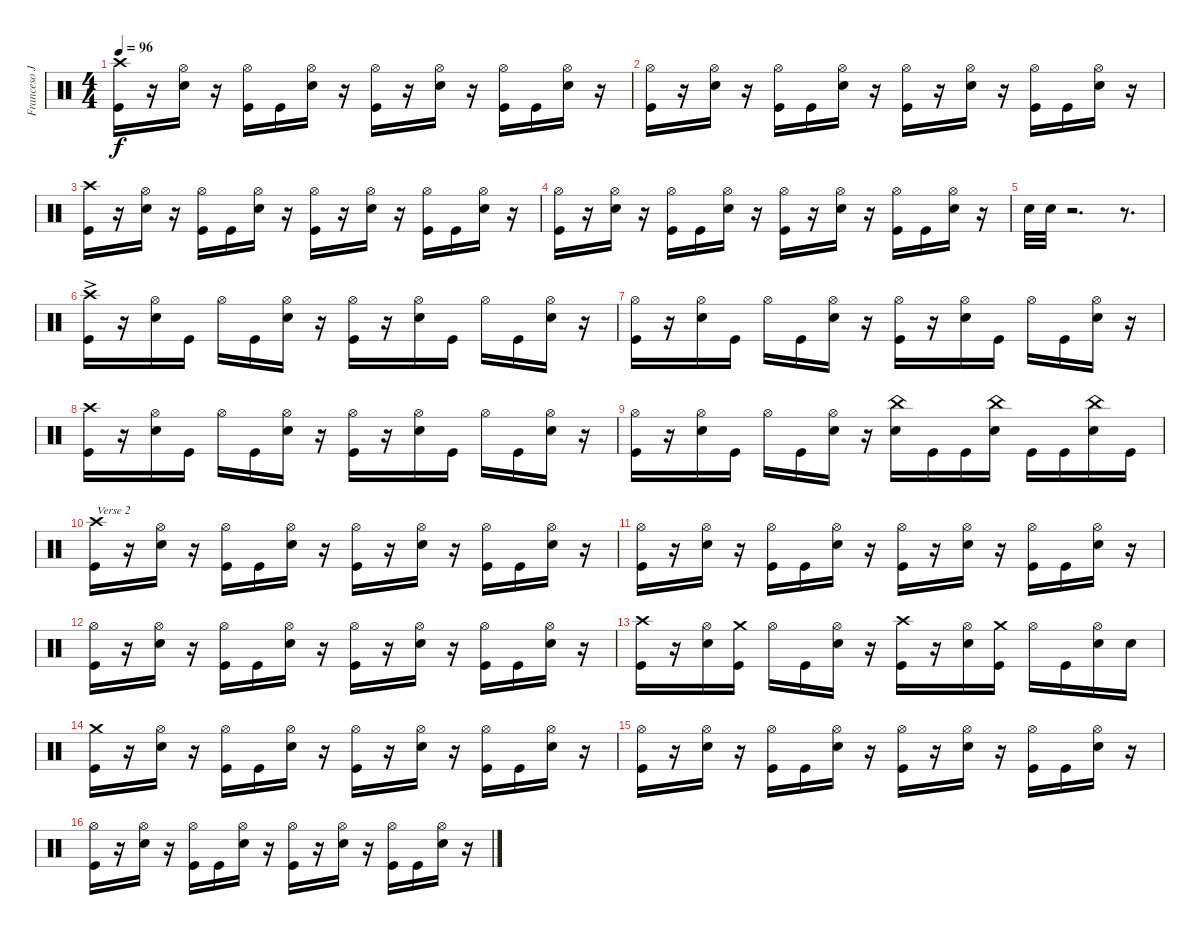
\track ("Franceso Jovino" "Franceso J") {instrument percussion}
\staff {score}
\articulation defaults
\ts (4 4)
\tempo 96
\clef neutral
\ks c
("Kick (hit)" "Crash high (hit)").16{dy f} r.16 ("Snare (hit) 2" "Hi-Hat (open)").16 r.16 ("Hi-Hat (open)" "Kick (hit)").16 "Kick (hit)".16 ("Snare (hit) 2" "Hi-Hat (open)").16 r.16 ("Kick (hit)" "Hi-Hat (open)").16 r.16 ("Snare (hit) 2" "Hi-Hat (open)").16 r.16 ("Hi-Hat (open)" "Kick (hit)").16 "Kick (hit)".16 ("Snare (hit) 2" "Hi-Hat (open)").16 r.16 |
("Kick (hit)" "Hi-Hat (open)").16 r.16 ("Snare (hit) 2" "Hi-Hat (open)").16 r.16 ("Hi-Hat (open)" "Kick (hit)").16 "Kick (hit)".16 ("Snare (hit) 2" "Hi-Hat (open)").16 r.16 ("Kick (hit)" "Hi-Hat (open)").16 r.16 ("Snare (hit) 2" "Hi-Hat (open)").16 r.16 ("Hi-Hat (open)" "Kick (hit)").16 "Kick (hit)".16 ("Snare (hit) 2" "Hi-Hat (open)").16 r.16 |
("Kick (hit)" "Crash high (hit)").16 r.16 ("Snare (hit) 2" "Hi-Hat (open)").16 r.16 ("Hi-Hat (open)" "Kick (hit)").16 "Kick (hit)".16 ("Snare (hit) 2" "Hi-Hat (open)").16 r.16 ("Kick (hit)" "Hi-Hat (open)").16 r.16 ("Snare (hit) 2" "Hi-Hat (open)").16 r.16 ("Hi-Hat (open)" "Kick (hit)").16 "Kick (hit)".16 ("Snare (hit) 2" "Hi-Hat (open)").16 r.16 |
("Kick (hit)" "Hi-Hat (open)").16 r.16 ("Snare (hit) 2" "Hi-Hat (open)").16 r.16 ("Hi-Hat (open)" "Kick (hit)").16 "Kick (hit)".16 ("Snare (hit) 2" "Hi-Hat (open)").16 r.16 ("Kick (hit)" "Hi-Hat (open)").16 r.16 ("Snare (hit) 2" "Hi-Hat (open)").16 r.16 ("Hi-Hat (open)" "Kick (hit)").16 "Kick (hit)".16 ("Snare (hit) 2" "Hi-Hat (open)").16 r.16 |
"Snare (hit) 2".32 "Snare (hit) 2".32 r.2{d} r.8{d} |
("Kick (hit)"{ac} "Crash high (hit)"{ac}).16 r.16 ("Snare (hit) 2" "Hi-Hat (open)").16 "Kick (hit)".16 "Hi-Hat (open)".16 "Kick (hit)".16 ("Snare (hit) 2" "Hi-Hat (open)").16 r.16 ("Kick (hit)" "Hi-Hat (open)").16 r.16 ("Snare (hit) 2" "Hi-Hat (open)").16 "Kick (hit)".16 "Hi-Hat (open)".16 "Kick (hit)".16 ("Snare (hit) 2" "Hi-Hat (open)").16 r.16 |
("Kick (hit)" "Hi-Hat (open)").16 r.16 ("Snare (hit) 2" "Hi-Hat (open)").16 "Kick (hit)".16 "Hi-Hat (open)".16 "Kick (hit)".16 ("Snare (hit) 2" "Hi-Hat (open)").16 r.16 ("Kick (hit)" "Hi-Hat (open)").16 r.16 ("Snare (hit) 2" "Hi-Hat (open)").16 "Kick (hit)".16 "Hi-Hat (open)".16 "Kick (hit)".16 ("Snare (hit) 2" "Hi-Hat (open)").16 r.16 |
("Kick (hit)" "Crash high (hit)").16 r.16 ("Snare (hit) 2" "Hi-Hat (open)").16 "Kick (hit)".16 "Hi-Hat (open)".16 "Kick (hit)".16 ("Snare (hit) 2" "Hi-Hat (open)").16 r.16 ("Kick (hit)" "Hi-Hat (open)").16 r.16 ("Snare (hit) 2" "Hi-Hat (open)").16 "Kick (hit)".16 "Hi-Hat (open)".16 "Kick (hit)".16 ("Snare (hit) 2" "Hi-Hat (open)").16 r.16 |
("Kick (hit)" "Hi-Hat (open)").16 r.16 ("Snare (hit) 2" "Hi-Hat (open)").16 "Kick (hit)".16 "Hi-Hat (open)".16 "Kick (hit)".16 ("Snare (hit) 2" "Hi-Hat (open)").16 r.16 ("Snare (hit) 2" "China (hit)").16 "Kick (hit)".16 "Kick (hit)".16 ("Snare (hit) 2" "China (hit)").16 "Kick (hit)".16 "Kick (hit)".16 ("Snare (hit) 2" "China (hit)").16 "Kick (hit)".16 |
("Kick (hit)" "Crash high (hit)").16{txt "Verse 2"} r.16 ("Snare (hit) 2" "Hi-Hat (open)").16 r.16 ("Hi-Hat (open)" "Kick (hit)").16 "Kick (hit)".16 ("Snare (hit) 2" "Hi-Hat (open)").16 r.16 ("Kick (hit)" "Hi-Hat (open)").16 r.16 ("Snare (hit) 2" "Hi-Hat (open)").16 r.16 ("Hi-Hat (open)" "Kick (hit)").16 "Kick (hit)".16 ("Snare (hit) 2" "Hi-Hat (open)").16 r.16 |
("Kick (hit)" "Hi-Hat (open)").16 r.16 ("Snare (hit) 2" "Hi-Hat (open)").16 r.16 ("Hi-Hat (open)" "Kick (hit)").16 "Kick (hit)".16 ("Snare (hit) 2" "Hi-Hat (open)").16 r.16 ("Kick (hit)" "Hi-Hat (open)").16 r.16 ("Snare (hit) 2" "Hi-Hat (open)").16 r.16 ("Hi-Hat (open)" "Kick (hit)").16 "Kick (hit)".16 ("Snare (hit) 2" "Hi-Hat (open)").16 r.16 |
("Kick (hit)" "Hi-Hat (open)").16 r.16 ("Snare (hit) 2" "Hi-Hat (open)").16 r.16 ("Hi-Hat (open)" "Kick (hit)").16 "Kick (hit)".16 ("Snare (hit) 2" "Hi-Hat (open)").16 r.16 ("Kick (hit)" "Hi-Hat (open)").16 r.16 ("Snare (hit) 2" "Hi-Hat (open)").16 r.16 ("Hi-Hat (open)" "Kick (hit)").16 "Kick (hit)".16 ("Snare (hit) 2" "Hi-Hat (open)").16 r.16 |
("Kick (hit)" "Crash high (hit)").16 r.16 ("Snare (hit) 2" "Hi-Hat (open)").16 ("Kick (hit)" "Crash medium (hit)").16 "Hi-Hat (open)".16 "Kick (hit)".16 ("Snare (hit) 2" "Hi-Hat (open)").16 r.16 ("Kick (hit)" "Crash high (hit)").16 r.16 ("Snare (hit) 2" "Hi-Hat (open)").16 ("Kick (hit)" "Crash medium (hit)").16 "Hi-Hat (open)".16 "Kick (hit)".16 ("Snare (hit) 2" "Hi-Hat (open)").16 "Snare (hit) 2".16 |
("Kick (hit)" "Crash medium (hit)").16 r.16 ("Snare (hit) 2" "Hi-Hat (open)").16 r.16 ("Hi-Hat (open)" "Kick (hit)").16 "Kick (hit)".16 ("Snare (hit) 2" "Hi-Hat (open)").16 r.16 ("Kick (hit)" "Hi-Hat (open)").16 r.16 ("Snare (hit) 2" "Hi-Hat (open)").16 r.16 ("Hi-Hat (open)" "Kick (hit)").16 "Kick (hit)".16 ("Snare (hit) 2" "Hi-Hat (open)").16 r.16 |
("Kick (hit)" "Hi-Hat (open)").16 r.16 ("Snare (hit) 2" "Hi-Hat (open)").16 r.16 ("Hi-Hat (open)" "Kick (hit)").16 "Kick (hit)".16 ("Snare (hit) 2" "Hi-Hat (open)").16 r.16 ("Kick (hit)" "Hi-Hat (open)").16 r.16 ("Snare (hit) 2" "Hi-Hat (open)").16 r.16 ("Hi-Hat (open)" "Kick (hit)").16 "Kick (hit)".16 ("Snare (hit) 2" "Hi-Hat (open)").16 r.16 |
("Kick (hit)" "Hi-Hat (open)").16 r.16 ("Snare (hit) 2" "Hi-Hat (open)").16 r.16 ("Hi-Hat (open)" "Kick (hit)").16 "Kick (hit)".16 ("Snare (hit) 2" "Hi-Hat (open)").16 r.16 ("Kick (hit)" "Hi-Hat (open)").16 r.16 ("Snare (hit) 2" "Hi-Hat (open)").16 r.16 ("Hi-Hat (open)" "Kick (hit)").16 "Kick (hit)".16 ("Snare (hit) 2" "Hi-Hat (open)").16 r.16
